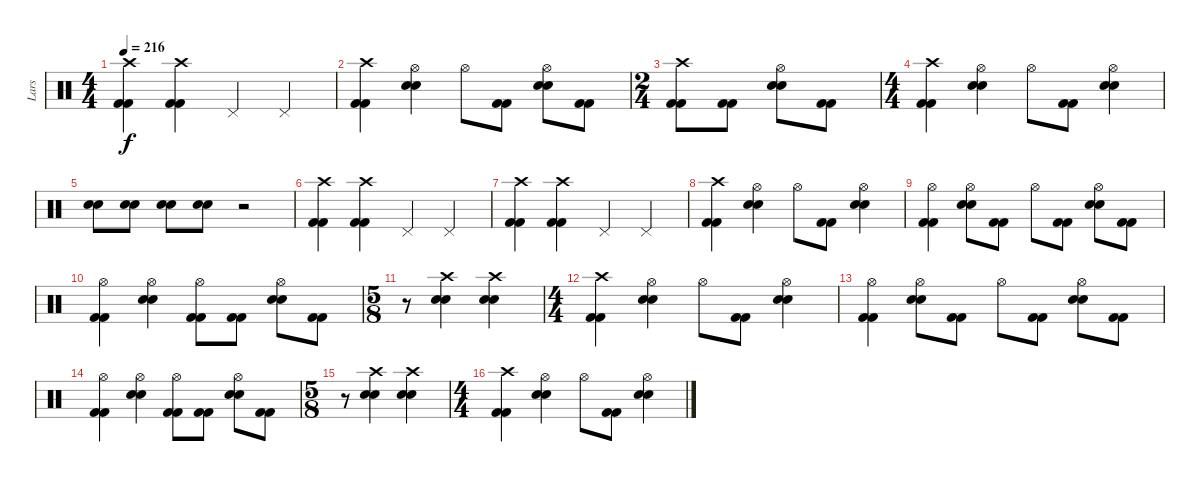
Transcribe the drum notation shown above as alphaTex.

\track ("Lars" "Lars") {instrument percussion}
\staff {score}
\articulation defaults
\ts (4 4)
\tempo 216
\clef neutral
\ks c
("Crash high (hit)" "Kick (hit) 2" "Kick (hit) 2").4{dy f} ("Crash high (hit)" "Kick (hit) 2" "Kick (hit) 2").4 "Pedal Hi-Hat (hit)".4 "Pedal Hi-Hat (hit)".4 |
("Crash high (hit)" "Kick (hit) 2" "Kick (hit) 2").4 ("Hi-Hat (open)" "Electric Snare (hit)" "Electric Snare (hit)").4 "Hi-Hat (open)".8 ("Kick (hit) 2" "Kick (hit) 2").8 ("Hi-Hat (open)" "Electric Snare (hit)" "Electric Snare (hit)").8 ("Kick (hit) 2" "Kick (hit) 2").8 |
\ts (2 4)
("Crash high (hit)" "Kick (hit) 2" "Kick (hit) 2").8 ("Kick (hit) 2" "Kick (hit) 2").8 ("Hi-Hat (open)" "Electric Snare (hit)" "Electric Snare (hit)").8 ("Kick (hit) 2" "Kick (hit) 2").8 |
\ts (4 4)
("Crash high (hit)" "Kick (hit) 2" "Kick (hit) 2").4 ("Hi-Hat (open)" "Electric Snare (hit)" "Electric Snare (hit)").4 "Hi-Hat (open)".8 ("Kick (hit) 2" "Kick (hit) 2").8 ("Hi-Hat (open)" "Electric Snare (hit)" "Electric Snare (hit)").4 |
("Electric Snare (hit)" "Electric Snare (hit)").8 ("Electric Snare (hit)" "Electric Snare (hit)").8 ("Electric Snare (hit)" "Electric Snare (hit)").8 ("Electric Snare (hit)" "Electric Snare (hit)").8 r.2 |
("Crash high (hit)" "Kick (hit) 2" "Kick (hit) 2").4 ("Crash high (hit)" "Kick (hit) 2" "Kick (hit) 2").4 "Pedal Hi-Hat (hit)".4 "Pedal Hi-Hat (hit)".4 |
("Crash high (hit)" "Kick (hit) 2" "Kick (hit) 2").4 ("Crash high (hit)" "Kick (hit) 2" "Kick (hit) 2").4 "Pedal Hi-Hat (hit)".4 "Pedal Hi-Hat (hit)".4 |
("Crash high (hit)" "Kick (hit) 2" "Kick (hit) 2").4 ("Hi-Hat (open)" "Electric Snare (hit)" "Electric Snare (hit)").4 "Hi-Hat (open)".8 ("Kick (hit) 2" "Kick (hit) 2").8 ("Hi-Hat (open)" "Electric Snare (hit)" "Electric Snare (hit)").4 |
("Hi-Hat (open)" "Kick (hit) 2" "Kick (hit) 2").4 ("Hi-Hat (open)" "Electric Snare (hit)" "Electric Snare (hit)").8 ("Kick (hit) 2" "Kick (hit) 2").8 "Hi-Hat (open)".8 ("Kick (hit) 2" "Kick (hit) 2").8 ("Hi-Hat (open)" "Electric Snare (hit)" "Electric Snare (hit)").8 ("Kick (hit) 2" "Kick (hit) 2").8 |
("Hi-Hat (open)" "Kick (hit) 2" "Kick (hit) 2").4 ("Hi-Hat (open)" "Electric Snare (hit)" "Electric Snare (hit)").4 ("Hi-Hat (open)" "Kick (hit) 2" "Kick (hit) 2").8 ("Kick (hit) 2" "Kick (hit) 2").8 ("Hi-Hat (open)" "Electric Snare (hit)" "Electric Snare (hit)").8 ("Kick (hit) 2" "Kick (hit) 2").8 |
\ts (5 8)
r.8 ("Crash high (hit)" "Electric Snare (hit)" "Electric Snare (hit)").4 ("Crash high (hit)" "Electric Snare (hit)" "Electric Snare (hit)").4 |
\ts (4 4)
("Crash high (hit)" "Kick (hit) 2" "Kick (hit) 2").4 ("Hi-Hat (open)" "Electric Snare (hit)" "Electric Snare (hit)").4 "Hi-Hat (open)".8 ("Kick (hit) 2" "Kick (hit) 2").8 ("Hi-Hat (open)" "Electric Snare (hit)" "Electric Snare (hit)").4 |
("Hi-Hat (open)" "Kick (hit) 2" "Kick (hit) 2").4 ("Hi-Hat (open)" "Electric Snare (hit)" "Electric Snare (hit)").8 ("Kick (hit) 2" "Kick (hit) 2").8 "Hi-Hat (open)".8 ("Kick (hit) 2" "Kick (hit) 2").8 ("Hi-Hat (open)" "Electric Snare (hit)" "Electric Snare (hit)").8 ("Kick (hit) 2" "Kick (hit) 2").8 |
("Hi-Hat (open)" "Kick (hit) 2" "Kick (hit) 2").4 ("Hi-Hat (open)" "Electric Snare (hit)" "Electric Snare (hit)").4 ("Hi-Hat (open)" "Kick (hit) 2" "Kick (hit) 2").8 ("Kick (hit) 2" "Kick (hit) 2").8 ("Hi-Hat (open)" "Electric Snare (hit)" "Electric Snare (hit)").8 ("Kick (hit) 2" "Kick (hit) 2").8 |
\ts (5 8)
r.8 ("Crash high (hit)" "Electric Snare (hit)" "Electric Snare (hit)").4 ("Crash high (hit)" "Electric Snare (hit)" "Electric Snare (hit)").4 |
\ts (4 4)
("Crash high (hit)" "Kick (hit) 2" "Kick (hit) 2").4 ("Hi-Hat (open)" "Electric Snare (hit)" "Electric Snare (hit)").4 "Hi-Hat (open)".8 ("Kick (hit) 2" "Kick (hit) 2").8 ("Hi-Hat (open)" "Electric Snare (hit)" "Electric Snare (hit)").4
